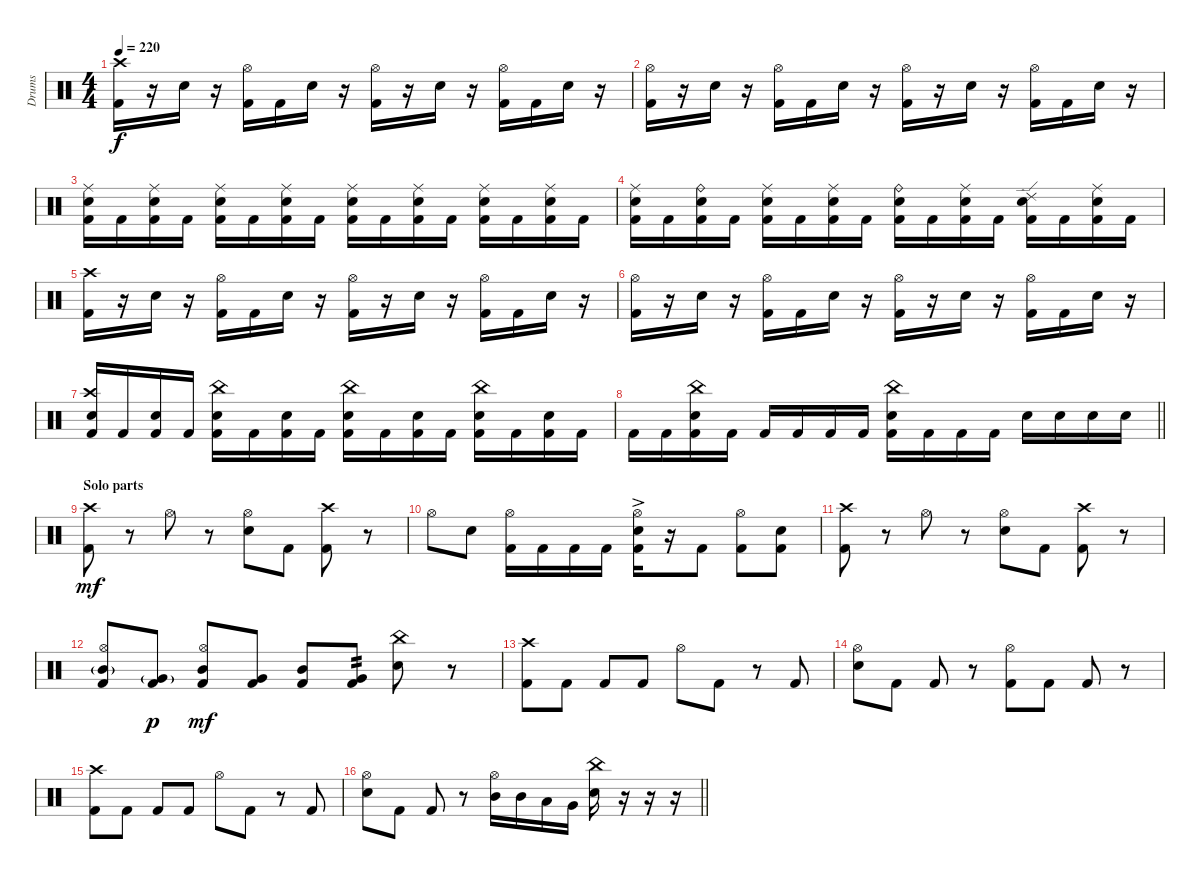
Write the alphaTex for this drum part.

\track ("Drums" "Drums") {instrument percussion}
\staff {score}
\articulation defaults
\ts (4 4)
\tempo 220
\clef neutral
\ks c
("Kick (hit) 2" "Crash high (hit)").16{dy f} r.16 "Electric Snare (hit)".16 r.16 ("Kick (hit) 2" "Hi-Hat (open)").16 "Kick (hit) 2".16 "Electric Snare (hit)".16 r.16 ("Kick (hit) 2" "Hi-Hat (open)").16 r.16 "Electric Snare (hit)".16 r.16 ("Kick (hit) 2" "Hi-Hat (open)").16 "Kick (hit) 2".16 "Electric Snare (hit)".16 r.16 |
("Kick (hit) 2" "Hi-Hat (open)").16 r.16 "Electric Snare (hit)".16 r.16 ("Kick (hit) 2" "Hi-Hat (open)").16 "Kick (hit) 2".16 "Electric Snare (hit)".16 r.16 ("Kick (hit) 2" "Hi-Hat (open)").16 r.16 "Electric Snare (hit)".16 r.16 ("Kick (hit) 2" "Hi-Hat (open)").16 "Kick (hit) 2".16 "Electric Snare (hit)".16 r.16 |
("Electric Snare (hit)" "Kick (hit) 2" "Ride (middle)").16 "Kick (hit) 2".16 ("Electric Snare (hit)" "Kick (hit) 2" "Ride (middle)").16 "Kick (hit) 2".16 ("Electric Snare (hit)" "Kick (hit) 2" "Ride (middle)").16 "Kick (hit) 2".16 ("Electric Snare (hit)" "Kick (hit) 2" "Ride (middle)").16 "Kick (hit) 2".16 ("Electric Snare (hit)" "Kick (hit) 2" "Ride (middle)").16 "Kick (hit) 2".16 ("Electric Snare (hit)" "Kick (hit) 2" "Ride (middle)").16 "Kick (hit) 2".16 ("Electric Snare (hit)" "Kick (hit) 2" "Ride (middle)").16 "Kick (hit) 2".16 ("Electric Snare (hit)" "Kick (hit) 2" "Ride (middle)").16 "Kick (hit) 2".16 |
("Electric Snare (hit)" "Kick (hit) 2" "Ride (middle)").16 "Kick (hit) 2".16 ("Electric Snare (hit)" "Kick (hit) 2" "Ride (bell)").16 "Kick (hit) 2".16 ("Electric Snare (hit)" "Kick (hit) 2" "Ride (middle)").16 "Kick (hit) 2".16 ("Electric Snare (hit)" "Kick (hit) 2" "Ride (middle)").16 "Kick (hit) 2".16 ("Electric Snare (hit)" "Kick (hit) 2" "Ride (bell)").16 "Kick (hit) 2".16 ("Electric Snare (hit)" "Kick (hit) 2" "Ride (middle)").16 "Kick (hit) 2".16 ("Electric Snare (hit)" "Kick (hit) 2" "Ride (edge) 2").16 "Kick (hit) 2".16 ("Electric Snare (hit)" "Kick (hit) 2" "Ride (middle)").16 "Kick (hit) 2".16 |
("Kick (hit) 2" "Crash high (hit)").16 r.16 "Electric Snare (hit)".16 r.16 ("Kick (hit) 2" "Hi-Hat (open)").16 "Kick (hit) 2".16 "Electric Snare (hit)".16 r.16 ("Kick (hit) 2" "Hi-Hat (open)").16 r.16 "Electric Snare (hit)".16 r.16 ("Kick (hit) 2" "Hi-Hat (open)").16 "Kick (hit) 2".16 "Electric Snare (hit)".16 r.16 |
("Kick (hit) 2" "Hi-Hat (open)").16 r.16 "Electric Snare (hit)".16 r.16 ("Kick (hit) 2" "Hi-Hat (open)").16 "Kick (hit) 2".16 "Electric Snare (hit)".16 r.16 ("Kick (hit) 2" "Hi-Hat (open)").16 r.16 "Electric Snare (hit)".16 r.16 ("Kick (hit) 2" "Hi-Hat (open)").16 "Kick (hit) 2".16 "Electric Snare (hit)".16 r.16 |
("Kick (hit) 2" "Electric Snare (hit)" "Crash high (hit)").16 "Kick (hit) 2".16 ("Kick (hit) 2" "Electric Snare (hit)").16 "Kick (hit) 2".16 ("Kick (hit) 2" "Electric Snare (hit)" "China (hit)").16 "Kick (hit) 2".16 ("Kick (hit) 2" "Electric Snare (hit)").16 "Kick (hit) 2".16 ("Kick (hit) 2" "Electric Snare (hit)" "China (hit)").16 "Kick (hit) 2".16 ("Kick (hit) 2" "Electric Snare (hit)").16 "Kick (hit) 2".16 ("Kick (hit) 2" "Electric Snare (hit)" "China (hit)").16 "Kick (hit) 2".16 ("Kick (hit) 2" "Electric Snare (hit)").16 "Kick (hit) 2".16 |
\barLineRight lightlight "Kick (hit) 2".16 "Kick (hit) 2".16
("Kick (hit) 2" "Electric Snare (hit)" "China (hit)").16 "Kick (hit) 2".16 "Kick (hit) 2".16 "Kick (hit) 2".16 "Kick (hit) 2".16 "Kick (hit) 2".16 ("Kick (hit) 2" "Electric Snare (hit)" "China (hit)").16 "Kick (hit) 2".16 "Kick (hit) 2".16 "Kick (hit) 2".16 "Electric Snare (hit)".16 "Electric Snare (hit)".16 "Electric Snare (hit)".16 "Electric Snare (hit)".16 |
\section ("" "Solo parts")
("Kick (hit) 2" "Crash high (hit)").8{dy mf} r.8 "Hi-Hat (open)".8 r.8 ("Electric Snare (hit)" "Hi-Hat (open)").8 "Kick (hit) 2".8 ("Kick (hit) 2" "Crash high (hit)").8 r.8 |
"Hi-Hat (open)".8 "Electric Snare (hit)".8 ("Kick (hit) 2" "Hi-Hat (open)").16 "Kick (hit) 2".16 "Kick (hit) 2".16 "Kick (hit) 2".16 ("Kick (hit) 2" "Electric Snare (hit)"{ac} "Hi-Hat (open)").16 r.16 "Kick (hit) 2".8 ("Kick (hit) 2" "Hi-Hat (open)").8 ("Kick (hit) 2" "Electric Snare (hit)").8 |
("Kick (hit) 2" "Crash high (hit)").8 r.8 "Hi-Hat (open)".8 r.8 ("Electric Snare (hit)" "Hi-Hat (open)").8 "Kick (hit) 2".8 ("Kick (hit) 2" "Crash high (hit)").8 r.8 |
("Kick (hit) 2" "Mid Tom (hit)"{g} "Hi-Hat (open)").8 ("Kick (hit) 2" "Very Low Tom (hit)"{g}).8{dy p} ("Kick (hit) 2" "Mid Tom (hit)" "Hi-Hat (open)").8{dy mf} ("Kick (hit) 2" "Very Low Tom (hit)").8 ("Kick (hit) 2" "Mid Tom (hit)").8 ("Kick (hit) 2" "Very Low Tom (hit)").8{tp 2} ("Electric Snare (hit)" "China (hit)").8 r.8 |
("Crash high (hit)" "Kick (hit) 2").8 "Kick (hit) 2".8 "Kick (hit) 2".8 "Kick (hit) 2".8 "Hi-Hat (open)".8 "Kick (hit) 2".8 r.8 "Kick (hit) 2".8 |
("Electric Snare (hit)" "Hi-Hat (open)").8 "Kick (hit) 2".8 "Kick (hit) 2".8 r.8 ("Kick (hit) 2" "Hi-Hat (open)").8 "Kick (hit) 2".8 "Kick (hit) 2".8 r.8 |
("Kick (hit) 2" "Crash high (hit)").8 "Kick (hit) 2".8 "Kick (hit) 2".8 "Kick (hit) 2".8 "Hi-Hat (open)".8 "Kick (hit) 2".8 r.8 "Kick (hit) 2".8 |
\barLineRight lightlight
("Electric Snare (hit)" "Hi-Hat (open)").8 "Kick (hit) 2".8 "Kick (hit) 2".8 r.8 ("Mid Tom (hit)" "Hi-Hat (open)").16 "Mid Tom (hit)".16 "Low Tom (hit)".16 "Very Low Tom (hit)".16 ("Electric Snare (hit)" "China (hit)").16 r.16 r.16 r.16
